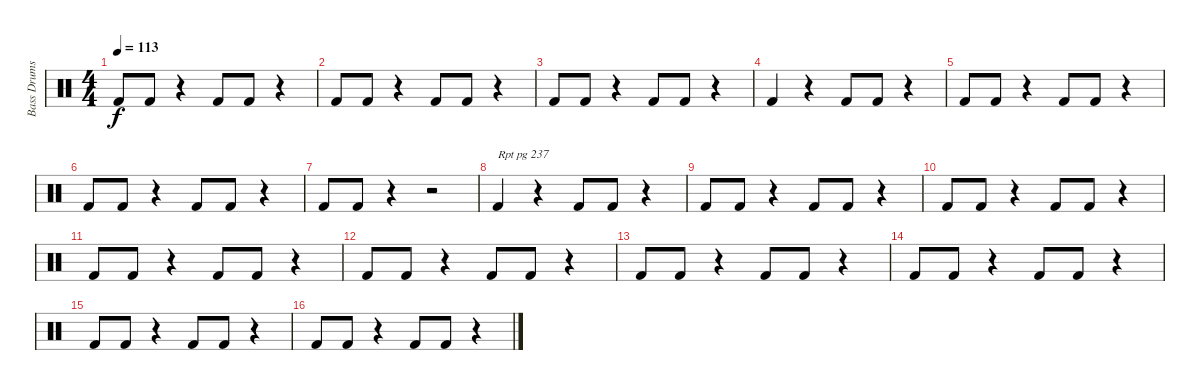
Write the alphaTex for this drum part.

\track ("Bass Drums" "Bass Drums") {instrument percussion}
\staff {score}
\articulation defaults
\ts (4 4)
\tempo 113
\clef neutral
\ks c "Kick (hit) 2".8{dy f} "Kick (hit) 2".8
r.4 "Kick (hit) 2".8 "Kick (hit) 2".8 r.4 |
"Kick (hit) 2".8 "Kick (hit) 2".8 r.4 "Kick (hit) 2".8 "Kick (hit) 2".8 r.4 |
"Kick (hit) 2".8 "Kick (hit) 2".8 r.4 "Kick (hit) 2".8 "Kick (hit) 2".8 r.4 |
"Kick (hit) 2".4 r.4 "Kick (hit) 2".8 "Kick (hit) 2".8 r.4 |
"Kick (hit) 2".8 "Kick (hit) 2".8 r.4 "Kick (hit) 2".8 "Kick (hit) 2".8 r.4 |
"Kick (hit) 2".8 "Kick (hit) 2".8 r.4 "Kick (hit) 2".8 "Kick (hit) 2".8 r.4 |
"Kick (hit) 2".8 "Kick (hit) 2".8 r.4 r.2 |
"Kick (hit) 2".4{txt "Rpt pg 237"} r.4 "Kick (hit) 2".8 "Kick (hit) 2".8 r.4 |
"Kick (hit) 2".8 "Kick (hit) 2".8 r.4 "Kick (hit) 2".8 "Kick (hit) 2".8 r.4 |
"Kick (hit) 2".8 "Kick (hit) 2".8 r.4 "Kick (hit) 2".8 "Kick (hit) 2".8 r.4 |
"Kick (hit) 2".8 "Kick (hit) 2".8 r.4 "Kick (hit) 2".8 "Kick (hit) 2".8 r.4 |
"Kick (hit) 2".8 "Kick (hit) 2".8 r.4 "Kick (hit) 2".8 "Kick (hit) 2".8 r.4 |
"Kick (hit) 2".8 "Kick (hit) 2".8 r.4 "Kick (hit) 2".8 "Kick (hit) 2".8 r.4 |
"Kick (hit) 2".8 "Kick (hit) 2".8 r.4 "Kick (hit) 2".8 "Kick (hit) 2".8 r.4 |
"Kick (hit) 2".8 "Kick (hit) 2".8 r.4 "Kick (hit) 2".8 "Kick (hit) 2".8 r.4 |
"Kick (hit) 2".8 "Kick (hit) 2".8 r.4 "Kick (hit) 2".8 "Kick (hit) 2".8 r.4
